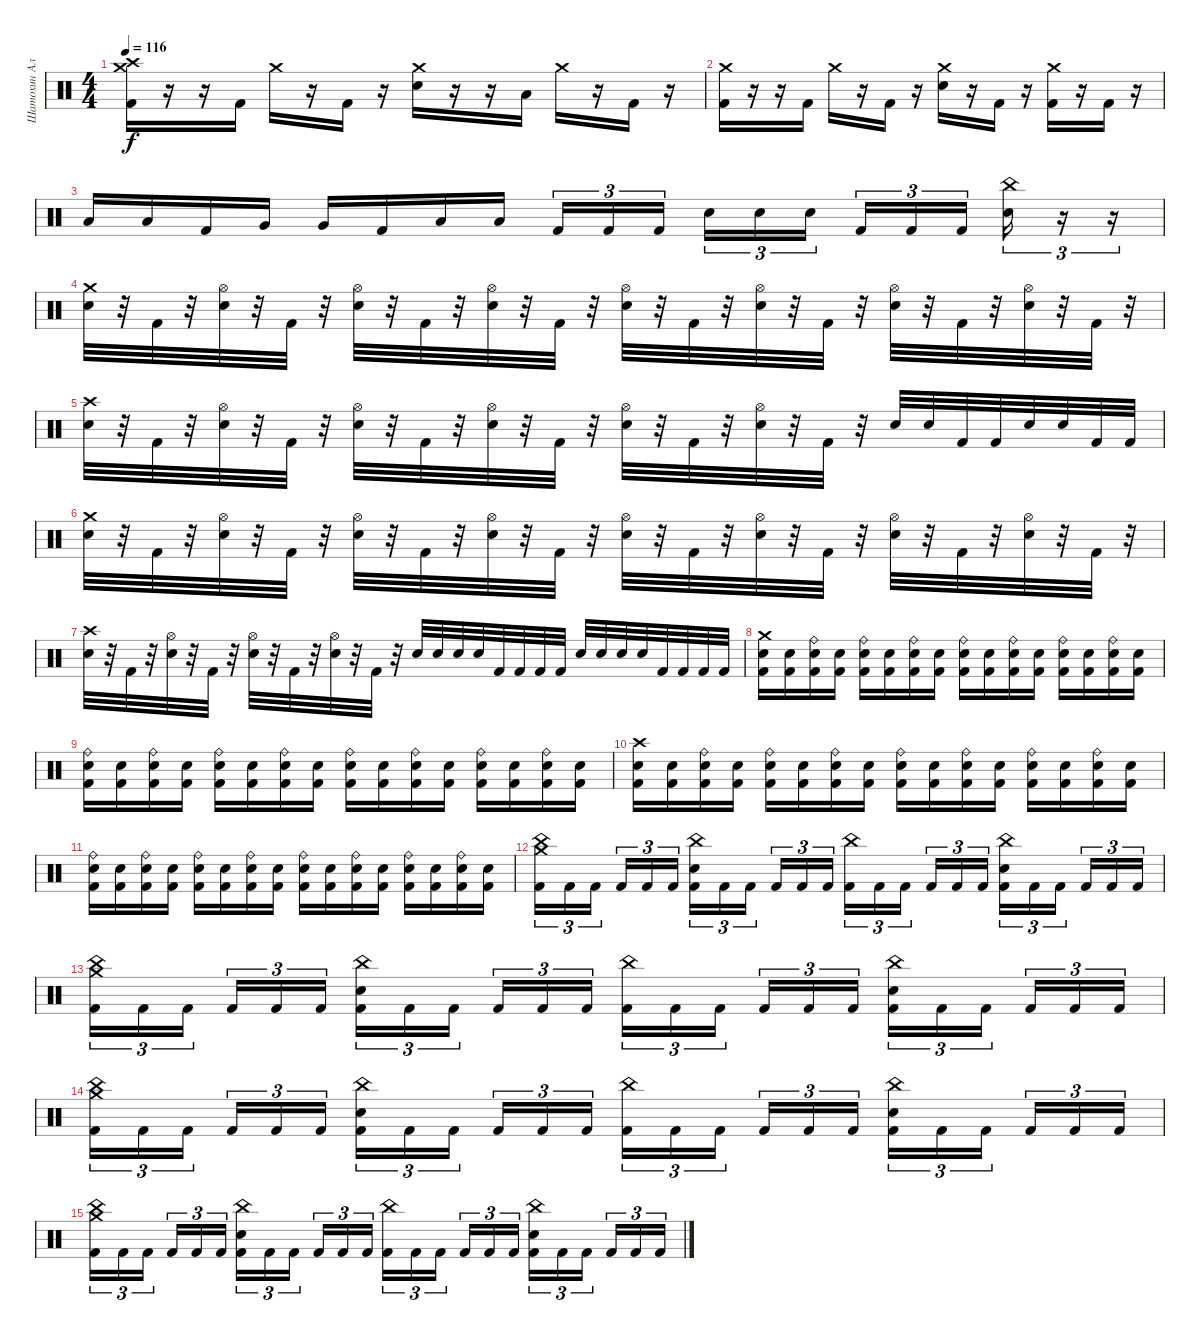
\track ("Шатохин Алексей" "Шатохин Ал") {instrument percussion}
\staff {score}
\articulation defaults
\ts (4 4)
\tempo 116
\clef neutral
\ks c
("Crash medium (hit)" "Crash high (hit)" "Kick (hit) 2").16{dy f} r.16 r.16 "Kick (hit) 2".16 "Crash medium (hit)".16 r.16 "Kick (hit) 2".16 r.16 ("Crash medium (hit)" "Electric Snare (hit)").16 r.16 r.16 "Low Tom (hit)".16 "Crash medium (hit)".16 r.16 "Kick (hit) 2".16 r.16 |
("Crash medium (hit)" "Kick (hit) 2").16 r.16 r.16 "Kick (hit) 2".16 "Crash medium (hit)".16 r.16 "Kick (hit) 2".16 r.16 ("Crash medium (hit)" "Electric Snare (hit)").16 r.16 "Kick (hit) 2".16 r.16 ("Crash medium (hit)" "Kick (hit) 2").16 r.16 "Kick (hit) 2".16 r.16 |
"Low Tom (hit)".16 "Low Tom (hit)".16 "Kick (hit) 2".16 "Very Low Tom (hit)".16 "Very Low Tom (hit)".16 "Kick (hit) 2".16 "Low Floor Tom (hit)".16 "Low Floor Tom (hit)".16 "Kick (hit) 2".16{tu (3 2)} "Kick (hit) 2".16{tu (3 2)} "Kick (hit) 2".16{tu (3 2) beam splitsecondary} "Electric Snare (hit)".16{tu (3 2)} "Electric Snare (hit)".16{tu (3 2)} "Electric Snare (hit)".16{tu (3 2)} "Kick (hit) 2".16{tu (3 2)} "Kick (hit) 2".16{tu (3 2)} "Kick (hit) 2".16{tu (3 2) beam splitsecondary} ("China (hit)" "Electric Snare (hit)").16{tu (3 2)} r.16{tu (3 2)} r.16{tu (3 2)} |
("Crash medium (hit)" "Electric Snare (hit)").32 r.32 "Kick (hit) 2".32 r.32 ("Hi-Hat (open)" "Electric Snare (hit)").32 r.32 "Kick (hit) 2".32 r.32 ("Hi-Hat (open)" "Electric Snare (hit)").32 r.32 "Kick (hit) 2".32 r.32 ("Hi-Hat (open)" "Electric Snare (hit)").32 r.32 "Kick (hit) 2".32 r.32 ("Hi-Hat (open)" "Electric Snare (hit)").32 r.32 "Kick (hit) 2".32 r.32 ("Hi-Hat (open)" "Electric Snare (hit)").32 r.32 "Kick (hit) 2".32 r.32 ("Hi-Hat (open)" "Electric Snare (hit)").32 r.32 "Kick (hit) 2".32 r.32 ("Hi-Hat (open)" "Electric Snare (hit)").32 r.32 "Kick (hit) 2".32 r.32 |
("Crash high (hit)" "Electric Snare (hit)").32 r.32 "Kick (hit) 2".32 r.32 ("Hi-Hat (open)" "Electric Snare (hit)").32 r.32 "Kick (hit) 2".32 r.32 ("Hi-Hat (open)" "Electric Snare (hit)").32 r.32 "Kick (hit) 2".32 r.32 ("Hi-Hat (open)" "Electric Snare (hit)").32 r.32 "Kick (hit) 2".32 r.32 ("Hi-Hat (open)" "Electric Snare (hit)").32 r.32 "Kick (hit) 2".32 r.32 ("Hi-Hat (open)" "Electric Snare (hit)").32 r.32 "Kick (hit) 2".32 r.32 "Electric Snare (hit)".32 "Electric Snare (hit)".32 "Kick (hit) 2".32 "Kick (hit) 2".32 "Electric Snare (hit)".32 "Electric Snare (hit)".32 "Kick (hit) 2".32 "Kick (hit) 2".32 |
("Crash medium (hit)" "Electric Snare (hit)").32 r.32 "Kick (hit) 2".32 r.32 ("Hi-Hat (open)" "Electric Snare (hit)").32 r.32 "Kick (hit) 2".32 r.32 ("Hi-Hat (open)" "Electric Snare (hit)").32 r.32 "Kick (hit) 2".32 r.32 ("Hi-Hat (open)" "Electric Snare (hit)").32 r.32 "Kick (hit) 2".32 r.32 ("Hi-Hat (open)" "Electric Snare (hit)").32 r.32 "Kick (hit) 2".32 r.32 ("Hi-Hat (open)" "Electric Snare (hit)").32 r.32 "Kick (hit) 2".32 r.32 ("Hi-Hat (open)" "Electric Snare (hit)").32 r.32 "Kick (hit) 2".32 r.32 ("Hi-Hat (open)" "Electric Snare (hit)").32 r.32 "Kick (hit) 2".32 r.32 |
("Crash high (hit)" "Electric Snare (hit)").32 r.32 "Kick (hit) 2".32 r.32 ("Hi-Hat (open)" "Electric Snare (hit)").32 r.32 "Kick (hit) 2".32 r.32 ("Hi-Hat (open)" "Electric Snare (hit)").32 r.32 "Kick (hit) 2".32 r.32 ("Hi-Hat (open)" "Electric Snare (hit)").32 r.32 "Kick (hit) 2".32 r.32 "Electric Snare (hit)".32 "Electric Snare (hit)".32 "Electric Snare (hit)".32 "Electric Snare (hit)".32 "Kick (hit) 2".32 "Kick (hit) 2".32 "Kick (hit) 2".32 "Kick (hit) 2".32 "Electric Snare (hit)".32 "Electric Snare (hit)".32 "Electric Snare (hit)".32 "Electric Snare (hit)".32 "Kick (hit) 2".32 "Kick (hit) 2".32 "Kick (hit) 2".32 "Kick (hit) 2".32 |
("Crash medium (hit)" "Electric Snare (hit)" "Kick (hit) 2").16 ("Electric Snare (hit)" "Kick (hit) 2").16 ("Ride (bell)" "Electric Snare (hit)" "Kick (hit) 2").16 ("Electric Snare (hit)" "Kick (hit) 2").16 ("Ride (bell)" "Electric Snare (hit)" "Kick (hit) 2").16 ("Electric Snare (hit)" "Kick (hit) 2").16 ("Ride (bell)" "Electric Snare (hit)" "Kick (hit) 2").16 ("Electric Snare (hit)" "Kick (hit) 2").16 ("Ride (bell)" "Electric Snare (hit)" "Kick (hit) 2").16 ("Electric Snare (hit)" "Kick (hit) 2").16 ("Ride (bell)" "Electric Snare (hit)" "Kick (hit) 2").16 ("Electric Snare (hit)" "Kick (hit) 2").16 ("Ride (bell)" "Electric Snare (hit)" "Kick (hit) 2").16 ("Electric Snare (hit)" "Kick (hit) 2").16 ("Ride (bell)" "Electric Snare (hit)" "Kick (hit) 2").16 ("Electric Snare (hit)" "Kick (hit) 2").16 |
("Ride (bell)" "Electric Snare (hit)" "Kick (hit) 2").16 ("Electric Snare (hit)" "Kick (hit) 2").16 ("Ride (bell)" "Electric Snare (hit)" "Kick (hit) 2").16 ("Electric Snare (hit)" "Kick (hit) 2").16 ("Ride (bell)" "Electric Snare (hit)" "Kick (hit) 2").16 ("Electric Snare (hit)" "Kick (hit) 2").16 ("Ride (bell)" "Electric Snare (hit)" "Kick (hit) 2").16 ("Electric Snare (hit)" "Kick (hit) 2").16 ("Ride (bell)" "Electric Snare (hit)" "Kick (hit) 2").16 ("Electric Snare (hit)" "Kick (hit) 2").16 ("Ride (bell)" "Electric Snare (hit)" "Kick (hit) 2").16 ("Electric Snare (hit)" "Kick (hit) 2").16 ("Ride (bell)" "Electric Snare (hit)" "Kick (hit) 2").16 ("Electric Snare (hit)" "Kick (hit) 2").16 ("Ride (bell)" "Electric Snare (hit)" "Kick (hit) 2").16 ("Electric Snare (hit)" "Kick (hit) 2").16 |
("Crash high (hit)" "Electric Snare (hit)" "Kick (hit) 2").16 ("Electric Snare (hit)" "Kick (hit) 2").16 ("Ride (bell)" "Electric Snare (hit)" "Kick (hit) 2").16 ("Electric Snare (hit)" "Kick (hit) 2").16 ("Ride (bell)" "Electric Snare (hit)" "Kick (hit) 2").16 ("Electric Snare (hit)" "Kick (hit) 2").16 ("Ride (bell)" "Electric Snare (hit)" "Kick (hit) 2").16 ("Electric Snare (hit)" "Kick (hit) 2").16 ("Ride (bell)" "Electric Snare (hit)" "Kick (hit) 2").16 ("Electric Snare (hit)" "Kick (hit) 2").16 ("Ride (bell)" "Electric Snare (hit)" "Kick (hit) 2").16 ("Electric Snare (hit)" "Kick (hit) 2").16 ("Ride (bell)" "Electric Snare (hit)" "Kick (hit) 2").16 ("Electric Snare (hit)" "Kick (hit) 2").16 ("Ride (bell)" "Electric Snare (hit)" "Kick (hit) 2").16 ("Electric Snare (hit)" "Kick (hit) 2").16 |
("Ride (bell)" "Electric Snare (hit)" "Kick (hit) 2").16 ("Electric Snare (hit)" "Kick (hit) 2").16 ("Ride (bell)" "Electric Snare (hit)" "Kick (hit) 2").16 ("Electric Snare (hit)" "Kick (hit) 2").16 ("Ride (bell)" "Electric Snare (hit)" "Kick (hit) 2").16 ("Electric Snare (hit)" "Kick (hit) 2").16 ("Ride (bell)" "Electric Snare (hit)" "Kick (hit) 2").16 ("Electric Snare (hit)" "Kick (hit) 2").16 ("Ride (bell)" "Electric Snare (hit)" "Kick (hit) 2").16 ("Electric Snare (hit)" "Kick (hit) 2").16 ("Ride (bell)" "Electric Snare (hit)" "Kick (hit) 2").16 ("Electric Snare (hit)" "Kick (hit) 2").16 ("Ride (bell)" "Electric Snare (hit)" "Kick (hit) 2").16 ("Electric Snare (hit)" "Kick (hit) 2").16 ("Ride (bell)" "Electric Snare (hit)" "Kick (hit) 2").16 ("Electric Snare (hit)" "Kick (hit) 2").16 |
("China (hit)" "Crash medium (hit)" "Kick (hit) 2").16{tu (3 2)} "Kick (hit) 2".16{tu (3 2)} "Kick (hit) 2".16{tu (3 2) beam splitsecondary} "Kick (hit) 2".16{tu (3 2)} "Kick (hit) 2".16{tu (3 2)} "Kick (hit) 2".16{tu (3 2)} ("China (hit)" "Electric Snare (hit)" "Kick (hit) 2").16{tu (3 2)} "Kick (hit) 2".16{tu (3 2)} "Kick (hit) 2".16{tu (3 2) beam splitsecondary} "Kick (hit) 2".16{tu (3 2)} "Kick (hit) 2".16{tu (3 2)} "Kick (hit) 2".16{tu (3 2)} ("China (hit)" "Kick (hit) 2").16{tu (3 2)} "Kick (hit) 2".16{tu (3 2)} "Kick (hit) 2".16{tu (3 2) beam splitsecondary} "Kick (hit) 2".16{tu (3 2)} "Kick (hit) 2".16{tu (3 2)} "Kick (hit) 2".16{tu (3 2)} ("China (hit)" "Electric Snare (hit)" "Kick (hit) 2").16{tu (3 2)} "Kick (hit) 2".16{tu (3 2)} "Kick (hit) 2".16{tu (3 2) beam splitsecondary} "Kick (hit) 2".16{tu (3 2)} "Kick (hit) 2".16{tu (3 2)} "Kick (hit) 2".16{tu (3 2)} |
("China (hit)" "Crash medium (hit)" "Kick (hit) 2").16{tu (3 2)} "Kick (hit) 2".16{tu (3 2)} "Kick (hit) 2".16{tu (3 2) beam splitsecondary} "Kick (hit) 2".16{tu (3 2)} "Kick (hit) 2".16{tu (3 2)} "Kick (hit) 2".16{tu (3 2)} ("China (hit)" "Electric Snare (hit)" "Kick (hit) 2").16{tu (3 2)} "Kick (hit) 2".16{tu (3 2)} "Kick (hit) 2".16{tu (3 2) beam splitsecondary} "Kick (hit) 2".16{tu (3 2)} "Kick (hit) 2".16{tu (3 2)} "Kick (hit) 2".16{tu (3 2)} ("China (hit)" "Kick (hit) 2").16{tu (3 2)} "Kick (hit) 2".16{tu (3 2)} "Kick (hit) 2".16{tu (3 2) beam splitsecondary} "Kick (hit) 2".16{tu (3 2)} "Kick (hit) 2".16{tu (3 2)} "Kick (hit) 2".16{tu (3 2)} ("China (hit)" "Electric Snare (hit)" "Kick (hit) 2").16{tu (3 2)} "Kick (hit) 2".16{tu (3 2)} "Kick (hit) 2".16{tu (3 2) beam splitsecondary} "Kick (hit) 2".16{tu (3 2)} "Kick (hit) 2".16{tu (3 2)} "Kick (hit) 2".16{tu (3 2)} |
("China (hit)" "Crash medium (hit)" "Kick (hit) 2").16{tu (3 2)} "Kick (hit) 2".16{tu (3 2)} "Kick (hit) 2".16{tu (3 2) beam splitsecondary} "Kick (hit) 2".16{tu (3 2)} "Kick (hit) 2".16{tu (3 2)} "Kick (hit) 2".16{tu (3 2)} ("China (hit)" "Electric Snare (hit)" "Kick (hit) 2").16{tu (3 2)} "Kick (hit) 2".16{tu (3 2)} "Kick (hit) 2".16{tu (3 2) beam splitsecondary} "Kick (hit) 2".16{tu (3 2)} "Kick (hit) 2".16{tu (3 2)} "Kick (hit) 2".16{tu (3 2)} ("China (hit)" "Kick (hit) 2").16{tu (3 2)} "Kick (hit) 2".16{tu (3 2)} "Kick (hit) 2".16{tu (3 2) beam splitsecondary} "Kick (hit) 2".16{tu (3 2)} "Kick (hit) 2".16{tu (3 2)} "Kick (hit) 2".16{tu (3 2)} ("China (hit)" "Electric Snare (hit)" "Kick (hit) 2").16{tu (3 2)} "Kick (hit) 2".16{tu (3 2)} "Kick (hit) 2".16{tu (3 2) beam splitsecondary} "Kick (hit) 2".16{tu (3 2)} "Kick (hit) 2".16{tu (3 2)} "Kick (hit) 2".16{tu (3 2)} |
("China (hit)" "Crash medium (hit)" "Kick (hit) 2").16{tu (3 2)} "Kick (hit) 2".16{tu (3 2)} "Kick (hit) 2".16{tu (3 2) beam splitsecondary} "Kick (hit) 2".16{tu (3 2)} "Kick (hit) 2".16{tu (3 2)} "Kick (hit) 2".16{tu (3 2)} ("China (hit)" "Electric Snare (hit)" "Kick (hit) 2").16{tu (3 2)} "Kick (hit) 2".16{tu (3 2)} "Kick (hit) 2".16{tu (3 2) beam splitsecondary} "Kick (hit) 2".16{tu (3 2)} "Kick (hit) 2".16{tu (3 2)} "Kick (hit) 2".16{tu (3 2)} ("China (hit)" "Kick (hit) 2").16{tu (3 2)} "Kick (hit) 2".16{tu (3 2)} "Kick (hit) 2".16{tu (3 2) beam splitsecondary} "Kick (hit) 2".16{tu (3 2)} "Kick (hit) 2".16{tu (3 2)} "Kick (hit) 2".16{tu (3 2)} ("China (hit)" "Electric Snare (hit)" "Kick (hit) 2").16{tu (3 2)} "Kick (hit) 2".16{tu (3 2)} "Kick (hit) 2".16{tu (3 2) beam splitsecondary} "Kick (hit) 2".16{tu (3 2)} "Kick (hit) 2".16{tu (3 2)} "Kick (hit) 2".16{tu (3 2)}
